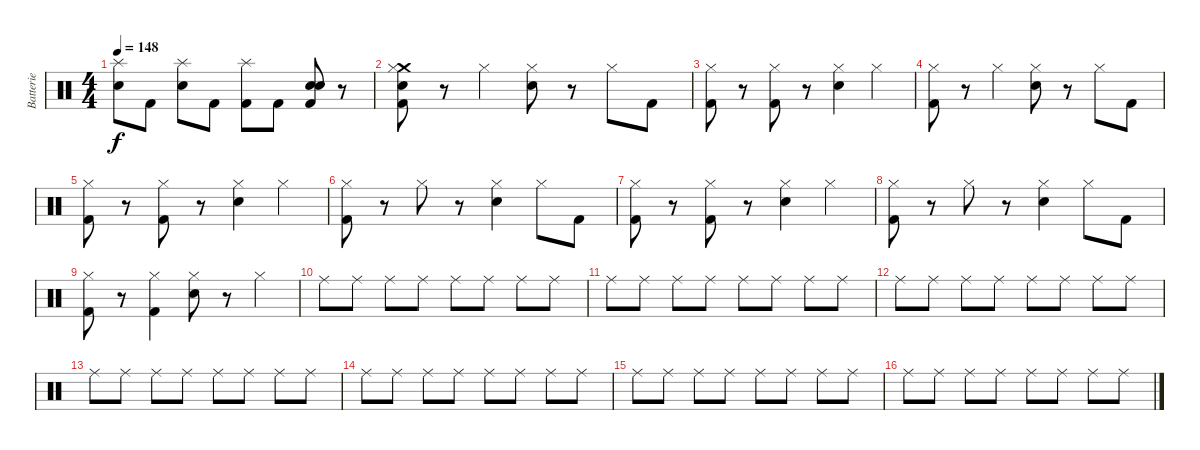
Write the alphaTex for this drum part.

\track ("Batterie" "Batterie") {instrument percussion}
\staff {score}
\articulation defaults
\ts (4 4)
\tempo 148
\clef neutral
\ks c
("Splash (hit)" "Electric Snare (hit)").8{dy f} "Kick (hit) 2".8 ("Splash (hit)" "Electric Snare (hit)").8 "Kick (hit) 2".8 ("Splash (hit)" "Kick (hit) 2").8 "Kick (hit) 2".8 ("Electric Snare (hit)" "Electric Snare (hit)" "Kick (hit) 2").8 r.8 |
("Crash medium (hit)" "Hi-Hat (closed)" "Electric Snare (hit)" "Kick (hit) 2").8 r.8 "Hi-Hat (closed)".4 ("Hi-Hat (closed)" "Electric Snare (hit)").8 r.8 "Hi-Hat (closed)".8 "Kick (hit) 2".8 |
("Hi-Hat (closed)" "Kick (hit) 2").8 r.8 ("Hi-Hat (closed)" "Kick (hit) 2").8 r.8 ("Hi-Hat (closed)" "Electric Snare (hit)").4 "Hi-Hat (closed)".4 |
("Hi-Hat (closed)" "Kick (hit) 2").8 r.8 "Hi-Hat (closed)".4 ("Hi-Hat (closed)" "Electric Snare (hit)").8 r.8 "Hi-Hat (closed)".8 "Kick (hit) 2".8 |
("Hi-Hat (closed)" "Kick (hit) 2").8 r.8 ("Hi-Hat (closed)" "Kick (hit) 2").8 r.8 ("Hi-Hat (closed)" "Electric Snare (hit)").4 "Hi-Hat (closed)".4 |
("Hi-Hat (closed)" "Kick (hit) 2").8 r.8 "Hi-Hat (closed)".8 r.8 ("Hi-Hat (closed)" "Electric Snare (hit)").4 "Hi-Hat (closed)".8 "Kick (hit) 2".8 |
("Hi-Hat (closed)" "Kick (hit) 2").8 r.8 ("Hi-Hat (closed)" "Kick (hit) 2").8 r.8 ("Hi-Hat (closed)" "Electric Snare (hit)").4 "Hi-Hat (closed)".4 |
("Hi-Hat (closed)" "Kick (hit) 2").8 r.8 "Hi-Hat (closed)".8 r.8 ("Hi-Hat (closed)" "Electric Snare (hit)").4 "Hi-Hat (closed)".8 "Kick (hit) 2".8 |
("Hi-Hat (closed)" "Kick (hit) 2").8 r.8 ("Hi-Hat (closed)" "Kick (hit) 2").4 ("Hi-Hat (closed)" "Electric Snare (hit)").8 r.8 "Hi-Hat (closed)".4 |
"Ride (middle)".8{volume 6} "Ride (middle)".8 "Ride (middle)".8 "Ride (middle)".8 "Ride (middle)".8 "Ride (middle)".8 "Ride (middle)".8 "Ride (middle)".8 |
"Ride (middle)".8 "Ride (middle)".8 "Ride (middle)".8 "Ride (middle)".8 "Ride (middle)".8 "Ride (middle)".8 "Ride (middle)".8 "Ride (middle)".8 |
"Ride (middle)".8 "Ride (middle)".8 "Ride (middle)".8 "Ride (middle)".8 "Ride (middle)".8 "Ride (middle)".8 "Ride (middle)".8 "Ride (middle)".8 |
"Ride (middle)".8 "Ride (middle)".8 "Ride (middle)".8 "Ride (middle)".8 "Ride (middle)".8 "Ride (middle)".8 "Ride (middle)".8 "Ride (middle)".8 |
"Ride (middle)".8 "Ride (middle)".8 "Ride (middle)".8 "Ride (middle)".8 "Ride (middle)".8 "Ride (middle)".8 "Ride (middle)".8 "Ride (middle)".8 |
"Ride (middle)".8 "Ride (middle)".8 "Ride (middle)".8 "Ride (middle)".8 "Ride (middle)".8 "Ride (middle)".8 "Ride (middle)".8 "Ride (middle)".8 |
"Ride (middle)".8 "Ride (middle)".8 "Ride (middle)".8 "Ride (middle)".8 "Ride (middle)".8 "Ride (middle)".8 "Ride (middle)".8 "Ride (middle)".8
